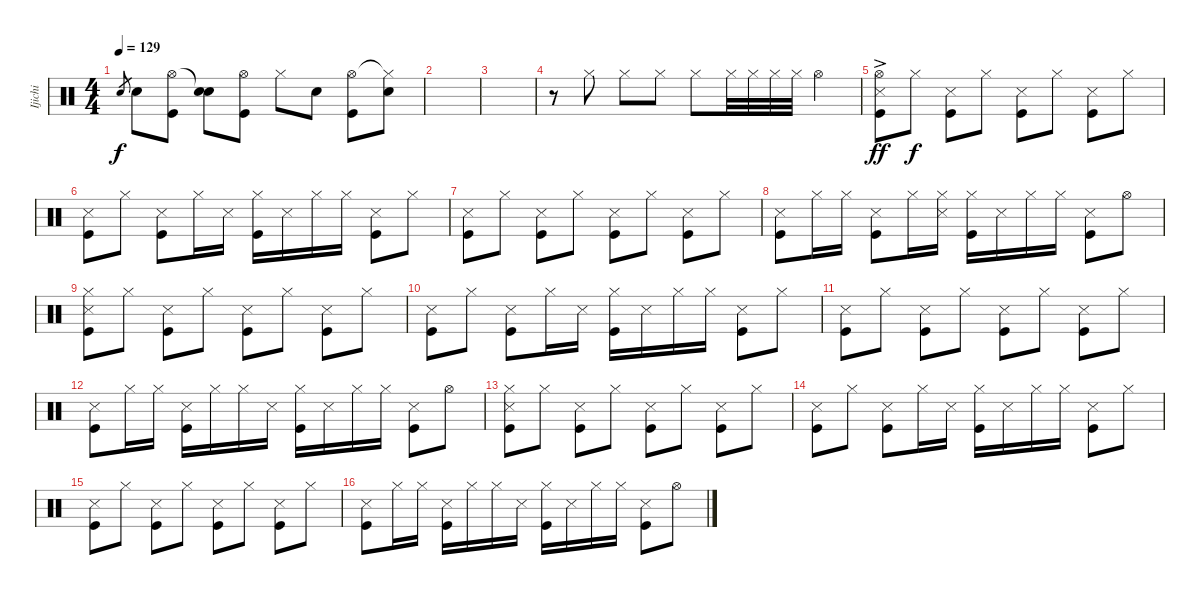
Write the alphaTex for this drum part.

\track ("Ijichi" "Ijichi") {instrument percussion}
\staff {score}
\articulation defaults
\ts (4 4)
\tempo 129
\clef neutral
\ks c "Snare (hit) 2".8{gr dy f} "Snare (hit) 2".8
("Hi-Hat (open)" "Kick (hit)").8 ("Snare (hit)"{t} "Snare (hit) 2").8 ("Hi-Hat (open)" "Kick (hit)").8 "Hi-Hat (closed)".8 "Snare (hit) 2".8 ("Hi-Hat (open)" "Kick (hit)").8 ("Hi-Hat (closed)"{t} "Snare (hit) 2").8 |
|
|
r.8 "Hi-Hat (closed)".8 "Hi-Hat (closed)".8 "Hi-Hat (closed)".8 "Hi-Hat (closed)".8 "Hi-Hat (closed)".32 "Hi-Hat (closed)".32 "Hi-Hat (closed)".32 "Hi-Hat (closed)".32 "Hi-Hat (open)".4 |
("Hi-Hat (open)"{ac} "Snare (side stick) 3" "Kick (hit)").8{dy ff} "Hi-Hat (closed)".8{dy f} ("Snare (side stick) 3" "Kick (hit)").8 "Hi-Hat (closed)".8 ("Snare (side stick) 3" "Kick (hit)").8 "Hi-Hat (closed)".8 ("Snare (side stick) 3" "Kick (hit)").8 "Hi-Hat (closed)".8 |
("Snare (side stick) 3" "Kick (hit)").8 "Hi-Hat (closed)".8 ("Snare (side stick) 3" "Kick (hit)").8 "Hi-Hat (closed)".16 "Snare (side stick) 3".16 ("Hi-Hat (closed)" "Kick (hit)").16 "Snare (side stick) 3".16 "Hi-Hat (closed)".16 "Hi-Hat (closed)".16 ("Snare (side stick) 3" "Kick (hit)").8 "Hi-Hat (closed)".8 |
("Snare (side stick) 3" "Kick (hit)").8 "Hi-Hat (closed)".8 ("Snare (side stick) 3" "Kick (hit)").8 "Hi-Hat (closed)".8 ("Snare (side stick) 3" "Kick (hit)").8 "Hi-Hat (closed)".8 ("Snare (side stick) 3" "Kick (hit)").8 "Hi-Hat (closed)".8 |
("Snare (side stick) 3" "Kick (hit)").8 "Hi-Hat (closed)".16 "Hi-Hat (closed)".16 ("Snare (side stick) 3" "Kick (hit)").8 "Hi-Hat (closed)".16 ("Hi-Hat (closed)" "Snare (side stick) 3").16 ("Hi-Hat (closed)" "Kick (hit)").16 "Snare (side stick) 3".16 "Hi-Hat (closed)".16 "Hi-Hat (closed)".16 ("Snare (side stick) 3" "Kick (hit)").8 "Hi-Hat (open)".8 |
("Hi-Hat (closed)" "Snare (side stick) 3" "Kick (hit)").8 "Hi-Hat (closed)".8 ("Snare (side stick) 3" "Kick (hit)").8 "Hi-Hat (closed)".8 ("Snare (side stick) 3" "Kick (hit)").8 "Hi-Hat (closed)".8 ("Snare (side stick) 3" "Kick (hit)").8 "Hi-Hat (closed)".8 |
("Snare (side stick) 3" "Kick (hit)").8 "Hi-Hat (closed)".8 ("Snare (side stick) 3" "Kick (hit)").8 "Hi-Hat (closed)".16 "Snare (side stick) 3".16 ("Hi-Hat (closed)" "Kick (hit)").16 "Snare (side stick) 3".16 "Hi-Hat (closed)".16 "Hi-Hat (closed)".16 ("Snare (side stick) 3" "Kick (hit)").8 "Hi-Hat (closed)".8 |
("Snare (side stick) 3" "Kick (hit)").8 "Hi-Hat (closed)".8 ("Snare (side stick) 3" "Kick (hit)").8 "Hi-Hat (closed)".8 ("Snare (side stick) 3" "Kick (hit)").8 "Hi-Hat (closed)".8 ("Snare (side stick) 3" "Kick (hit)").8 "Hi-Hat (closed)".8 |
("Snare (side stick) 3" "Kick (hit)").8 "Hi-Hat (closed)".16 "Hi-Hat (closed)".16 ("Snare (side stick) 3" "Kick (hit)").16 "Hi-Hat (closed)".16 "Hi-Hat (closed)".16 "Snare (side stick) 3".16 ("Hi-Hat (closed)" "Kick (hit)").16 "Snare (side stick) 3".16 "Hi-Hat (closed)".16 "Hi-Hat (closed)".16 ("Snare (side stick) 3" "Kick (hit)").8 "Hi-Hat (open)".8 |
("Hi-Hat (closed)" "Snare (side stick) 3" "Kick (hit)").8 "Hi-Hat (closed)".8 ("Snare (side stick) 3" "Kick (hit)").8 "Hi-Hat (closed)".8 ("Snare (side stick) 3" "Kick (hit)").8 "Hi-Hat (closed)".8 ("Snare (side stick) 3" "Kick (hit)").8 "Hi-Hat (closed)".8 |
("Snare (side stick) 3" "Kick (hit)").8 "Hi-Hat (closed)".8 ("Snare (side stick) 3" "Kick (hit)").8 "Hi-Hat (closed)".16 "Snare (side stick) 3".16 ("Hi-Hat (closed)" "Kick (hit)").16 "Snare (side stick) 3".16 "Hi-Hat (closed)".16 "Hi-Hat (closed)".16 ("Snare (side stick) 3" "Kick (hit)").8 "Hi-Hat (closed)".8 |
("Snare (side stick) 3" "Kick (hit)").8 "Hi-Hat (closed)".8 ("Snare (side stick) 3" "Kick (hit)").8 "Hi-Hat (closed)".8 ("Snare (side stick) 3" "Kick (hit)").8 "Hi-Hat (closed)".8 ("Snare (side stick) 3" "Kick (hit)").8 "Hi-Hat (closed)".8 |
("Snare (side stick) 3" "Kick (hit)").8 "Hi-Hat (closed)".16 "Hi-Hat (closed)".16 ("Snare (side stick) 3" "Kick (hit)").16 "Hi-Hat (closed)".16 "Hi-Hat (closed)".16 "Snare (side stick) 3".16 ("Hi-Hat (closed)" "Kick (hit)").16 "Snare (side stick) 3".16 "Hi-Hat (closed)".16 "Hi-Hat (closed)".16 ("Snare (side stick) 3" "Kick (hit)").8 "Hi-Hat (open)".8
